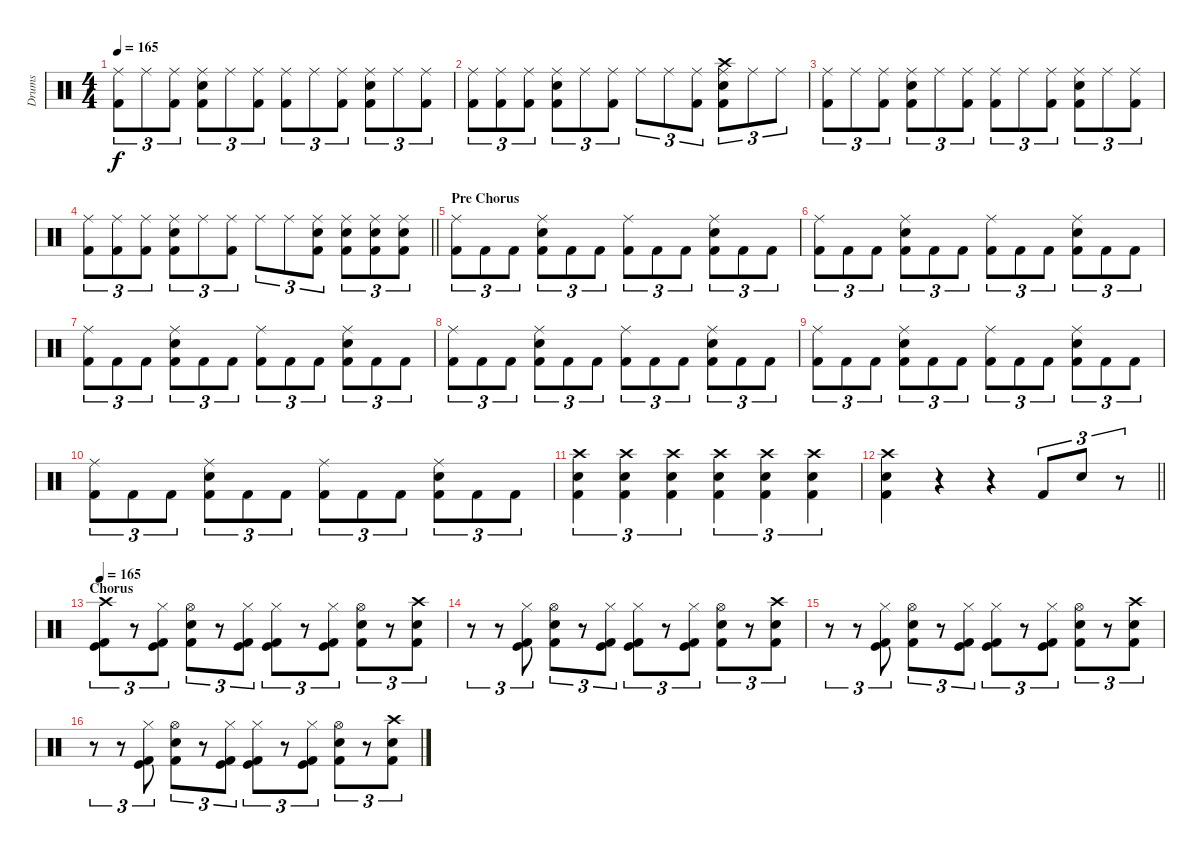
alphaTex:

\track ("Drums" "Drums") {instrument percussion}
\staff {score}
\articulation defaults
\ts (4 4)
\tempo 165
\clef neutral
\ks c
("Ride (middle)" "Kick (hit) 2").8{tu (3 2) dy f} "Ride (middle)".8{tu (3 2)} ("Ride (middle)" "Kick (hit) 2").8{tu (3 2)} ("Ride (middle)" "Snare (hit) 2" "Kick (hit) 2").8{tu (3 2)} "Ride (middle)".8{tu (3 2)} ("Ride (middle)" "Kick (hit) 2").8{tu (3 2)} ("Ride (middle)" "Kick (hit) 2").8{tu (3 2)} "Ride (middle)".8{tu (3 2)} ("Ride (middle)" "Kick (hit) 2").8{tu (3 2)} ("Ride (middle)" "Snare (hit) 2" "Kick (hit) 2").8{tu (3 2)} "Ride (middle)".8{tu (3 2)} ("Ride (middle)" "Kick (hit) 2").8{tu (3 2)} |
("Ride (middle)" "Kick (hit) 2").8{tu (3 2)} ("Ride (middle)" "Kick (hit) 2").8{tu (3 2)} ("Ride (middle)" "Kick (hit) 2").8{tu (3 2)} ("Ride (middle)" "Snare (hit) 2" "Kick (hit) 2").8{tu (3 2)} "Ride (middle)".8{tu (3 2)} ("Ride (middle)" "Kick (hit) 2").8{tu (3 2)} "Ride (middle)".8{tu (3 2)} "Ride (middle)".8{tu (3 2)} ("Ride (middle)" "Kick (hit) 2").8{tu (3 2)} ("Ride (middle)" "Snare (hit) 2" "Kick (hit) 2" "Crash high (hit)").8{tu (3 2)} "Ride (middle)".8{tu (3 2)} "Ride (middle)".8{tu (3 2)} |
("Ride (middle)" "Kick (hit) 2").8{tu (3 2)} "Ride (middle)".8{tu (3 2)} ("Ride (middle)" "Kick (hit) 2").8{tu (3 2)} ("Ride (middle)" "Snare (hit) 2" "Kick (hit) 2").8{tu (3 2)} "Ride (middle)".8{tu (3 2)} ("Ride (middle)" "Kick (hit) 2").8{tu (3 2)} ("Ride (middle)" "Kick (hit) 2").8{tu (3 2)} "Ride (middle)".8{tu (3 2)} ("Ride (middle)" "Kick (hit) 2").8{tu (3 2)} ("Ride (middle)" "Snare (hit) 2" "Kick (hit) 2").8{tu (3 2)} "Ride (middle)".8{tu (3 2)} ("Ride (middle)" "Kick (hit) 2").8{tu (3 2)} |
\barLineRight lightlight
("Ride (middle)" "Kick (hit) 2").8{tu (3 2)} ("Ride (middle)" "Kick (hit) 2").8{tu (3 2)} ("Ride (middle)" "Kick (hit) 2").8{tu (3 2)} ("Ride (middle)" "Snare (hit) 2" "Kick (hit) 2").8{tu (3 2)} "Ride (middle)".8{tu (3 2)} ("Ride (middle)" "Kick (hit) 2").8{tu (3 2)} "Ride (middle)".8{tu (3 2)} "Ride (middle)".8{tu (3 2)} ("Ride (middle)" "Snare (hit) 2" "Kick (hit) 2").8{tu (3 2)} ("Ride (middle)" "Snare (hit) 2" "Kick (hit) 2").8{tu (3 2)} ("Ride (middle)" "Snare (hit) 2" "Kick (hit) 2").8{tu (3 2)} ("Ride (middle)" "Snare (hit) 2" "Kick (hit) 2").8{tu (3 2)} |
\section ("" "Pre Chorus")
("Ride (middle)" "Kick (hit) 2").8{tu (3 2)} "Kick (hit) 2".8{tu (3 2)} "Kick (hit) 2".8{tu (3 2)} ("Ride (middle)" "Snare (hit) 2" "Kick (hit) 2").8{tu (3 2)} "Kick (hit) 2".8{tu (3 2)} "Kick (hit) 2".8{tu (3 2)} ("Ride (middle)" "Kick (hit) 2").8{tu (3 2)} "Kick (hit) 2".8{tu (3 2)} "Kick (hit) 2".8{tu (3 2)} ("Ride (middle)" "Snare (hit) 2" "Kick (hit) 2").8{tu (3 2)} "Kick (hit) 2".8{tu (3 2)} "Kick (hit) 2".8{tu (3 2)} |
("Ride (middle)" "Kick (hit) 2").8{tu (3 2)} "Kick (hit) 2".8{tu (3 2)} "Kick (hit) 2".8{tu (3 2)} ("Ride (middle)" "Snare (hit) 2" "Kick (hit) 2").8{tu (3 2)} "Kick (hit) 2".8{tu (3 2)} "Kick (hit) 2".8{tu (3 2)} ("Ride (middle)" "Kick (hit) 2").8{tu (3 2)} "Kick (hit) 2".8{tu (3 2)} "Kick (hit) 2".8{tu (3 2)} ("Ride (middle)" "Snare (hit) 2" "Kick (hit) 2").8{tu (3 2)} "Kick (hit) 2".8{tu (3 2)} "Kick (hit) 2".8{tu (3 2)} |
("Ride (middle)" "Kick (hit) 2").8{tu (3 2)} "Kick (hit) 2".8{tu (3 2)} "Kick (hit) 2".8{tu (3 2)} ("Ride (middle)" "Snare (hit) 2" "Kick (hit) 2").8{tu (3 2)} "Kick (hit) 2".8{tu (3 2)} "Kick (hit) 2".8{tu (3 2)} ("Ride (middle)" "Kick (hit) 2").8{tu (3 2)} "Kick (hit) 2".8{tu (3 2)} "Kick (hit) 2".8{tu (3 2)} ("Ride (middle)" "Snare (hit) 2" "Kick (hit) 2").8{tu (3 2)} "Kick (hit) 2".8{tu (3 2)} "Kick (hit) 2".8{tu (3 2)} |
("Ride (middle)" "Kick (hit) 2").8{tu (3 2)} "Kick (hit) 2".8{tu (3 2)} "Kick (hit) 2".8{tu (3 2)} ("Ride (middle)" "Snare (hit) 2" "Kick (hit) 2").8{tu (3 2)} "Kick (hit) 2".8{tu (3 2)} "Kick (hit) 2".8{tu (3 2)} ("Ride (middle)" "Kick (hit) 2").8{tu (3 2)} "Kick (hit) 2".8{tu (3 2)} "Kick (hit) 2".8{tu (3 2)} ("Ride (middle)" "Snare (hit) 2" "Kick (hit) 2").8{tu (3 2)} "Kick (hit) 2".8{tu (3 2)} "Kick (hit) 2".8{tu (3 2)} |
("Ride (middle)" "Kick (hit) 2").8{tu (3 2)} "Kick (hit) 2".8{tu (3 2)} "Kick (hit) 2".8{tu (3 2)} ("Ride (middle)" "Snare (hit) 2" "Kick (hit) 2").8{tu (3 2)} "Kick (hit) 2".8{tu (3 2)} "Kick (hit) 2".8{tu (3 2)} ("Ride (middle)" "Kick (hit) 2").8{tu (3 2)} "Kick (hit) 2".8{tu (3 2)} "Kick (hit) 2".8{tu (3 2)} ("Ride (middle)" "Snare (hit) 2" "Kick (hit) 2").8{tu (3 2)} "Kick (hit) 2".8{tu (3 2)} "Kick (hit) 2".8{tu (3 2)} |
("Ride (middle)" "Kick (hit) 2").8{tu (3 2)} "Kick (hit) 2".8{tu (3 2)} "Kick (hit) 2".8{tu (3 2)} ("Ride (middle)" "Snare (hit) 2" "Kick (hit) 2").8{tu (3 2)} "Kick (hit) 2".8{tu (3 2)} "Kick (hit) 2".8{tu (3 2)} ("Ride (middle)" "Kick (hit) 2").8{tu (3 2)} "Kick (hit) 2".8{tu (3 2)} "Kick (hit) 2".8{tu (3 2)} ("Ride (middle)" "Snare (hit) 2" "Kick (hit) 2").8{tu (3 2)} "Kick (hit) 2".8{tu (3 2)} "Kick (hit) 2".8{tu (3 2)} |
("Snare (hit) 2" "Kick (hit) 2" "Crash high (hit)").4{tu (3 2)} ("Snare (hit) 2" "Kick (hit) 2" "Crash high (hit)").4{tu (3 2)} ("Snare (hit) 2" "Kick (hit) 2" "Crash high (hit)").4{tu (3 2)} ("Snare (hit) 2" "Kick (hit) 2" "Crash high (hit)").4{tu (3 2)} ("Snare (hit) 2" "Kick (hit) 2" "Crash high (hit)").4{tu (3 2)} ("Snare (hit) 2" "Kick (hit) 2" "Crash high (hit)").4{tu (3 2)} |
\barLineRight lightlight
("Snare (hit) 2" "Kick (hit) 2" "Crash high (hit)").4 r.4 r.4 "Kick (hit) 2".8{tu (3 2)} "Snare (hit) 2".8{tu (3 2)} r.8{tu (3 2)} |
\section ("" "Chorus")
\tempo 165
("Kick (hit)" "Kick (hit) 2" "Crash high (hit)").8{tu (3 2)} r.8{tu (3 2)} ("Kick (hit)" "Kick (hit) 2" "Hi-Hat (closed)").8{tu (3 2)} ("Snare (hit) 2" "Kick (hit) 2" "Hi-Hat (open)").8{tu (3 2)} r.8{tu (3 2)} ("Kick (hit)" "Kick (hit) 2" "Hi-Hat (closed)").8{tu (3 2)} ("Kick (hit)" "Kick (hit) 2" "Hi-Hat (closed)").8{tu (3 2)} r.8{tu (3 2)} ("Kick (hit)" "Kick (hit) 2" "Hi-Hat (closed)").8{tu (3 2)} ("Snare (hit) 2" "Kick (hit) 2" "Hi-Hat (open)").8{tu (3 2)} r.8{tu (3 2)} ("Snare (hit) 2" "Kick (hit) 2" "Crash high (hit)").8{tu (3 2)} |
r.8{tu (3 2)} r.8{tu (3 2)} ("Kick (hit)" "Kick (hit) 2" "Hi-Hat (closed)").8{tu (3 2)} ("Snare (hit) 2" "Kick (hit) 2" "Hi-Hat (open)").8{tu (3 2)} r.8{tu (3 2)} ("Kick (hit)" "Kick (hit) 2" "Hi-Hat (closed)").8{tu (3 2)} ("Kick (hit)" "Kick (hit) 2" "Hi-Hat (closed)").8{tu (3 2)} r.8{tu (3 2)} ("Kick (hit)" "Kick (hit) 2" "Hi-Hat (closed)").8{tu (3 2)} ("Snare (hit) 2" "Kick (hit) 2" "Hi-Hat (open)").8{tu (3 2)} r.8{tu (3 2)} ("Snare (hit) 2" "Kick (hit) 2" "Crash high (hit)").8{tu (3 2)} |
r.8{tu (3 2)} r.8{tu (3 2)} ("Kick (hit)" "Kick (hit) 2" "Hi-Hat (closed)").8{tu (3 2)} ("Snare (hit) 2" "Kick (hit) 2" "Hi-Hat (open)").8{tu (3 2)} r.8{tu (3 2)} ("Kick (hit)" "Kick (hit) 2" "Hi-Hat (closed)").8{tu (3 2)} ("Kick (hit)" "Kick (hit) 2" "Hi-Hat (closed)").8{tu (3 2)} r.8{tu (3 2)} ("Kick (hit)" "Kick (hit) 2" "Hi-Hat (closed)").8{tu (3 2)} ("Snare (hit) 2" "Kick (hit) 2" "Hi-Hat (open)").8{tu (3 2)} r.8{tu (3 2)} ("Snare (hit) 2" "Kick (hit) 2" "Crash high (hit)").8{tu (3 2)} |
r.8{tu (3 2)} r.8{tu (3 2)} ("Kick (hit)" "Kick (hit) 2" "Hi-Hat (closed)").8{tu (3 2)} ("Snare (hit) 2" "Kick (hit) 2" "Hi-Hat (open)").8{tu (3 2)} r.8{tu (3 2)} ("Kick (hit)" "Kick (hit) 2" "Hi-Hat (closed)").8{tu (3 2)} ("Kick (hit)" "Kick (hit) 2" "Hi-Hat (closed)").8{tu (3 2)} r.8{tu (3 2)} ("Kick (hit)" "Kick (hit) 2" "Hi-Hat (closed)").8{tu (3 2)} ("Snare (hit) 2" "Kick (hit) 2" "Hi-Hat (open)").8{tu (3 2)} r.8{tu (3 2)} ("Snare (hit) 2" "Kick (hit) 2" "Crash high (hit)").8{tu (3 2)}
